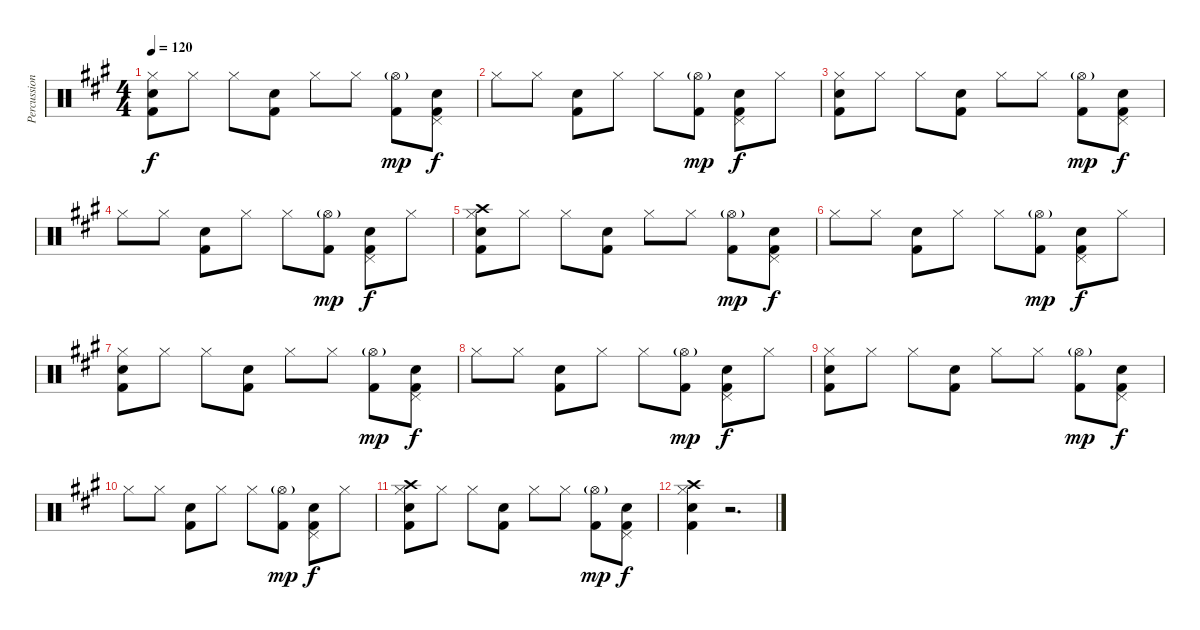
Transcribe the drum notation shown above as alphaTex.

\track ("Percussion" "Percussion") {instrument percussion}
\staff {score}
\articulation defaults
\ts (4 4)
\tempo 120
\clef neutral
\ks a
("Hi-Hat (closed)" "Snare (hit) 2" "Kick (hit) 2").8{dy f} "Hi-Hat (closed)".8 "Hi-Hat (closed)".8 ("Snare (hit) 2" "Kick (hit) 2").8 "Hi-Hat (closed)".8 "Hi-Hat (closed)".8 ("Hi-Hat (open)"{g} "Kick (hit) 2").8{dy mp} ("Pedal Hi-Hat (hit)" "Snare (hit) 2" "Kick (hit) 2").8{dy f} |
"Hi-Hat (closed)".8 "Hi-Hat (closed)".8 ("Snare (hit) 2" "Kick (hit) 2").8 "Hi-Hat (closed)".8 "Hi-Hat (closed)".8 ("Hi-Hat (open)"{g} "Kick (hit) 2").8{dy mp} ("Pedal Hi-Hat (hit)" "Snare (hit) 2" "Kick (hit) 2").8{dy f} "Hi-Hat (closed)".8 |
("Hi-Hat (closed)" "Snare (hit) 2" "Kick (hit) 2").8 "Hi-Hat (closed)".8 "Hi-Hat (closed)".8 ("Snare (hit) 2" "Kick (hit) 2").8 "Hi-Hat (closed)".8 "Hi-Hat (closed)".8 ("Hi-Hat (open)"{g} "Kick (hit) 2").8{dy mp} ("Pedal Hi-Hat (hit)" "Snare (hit) 2" "Kick (hit) 2").8{dy f} |
"Hi-Hat (closed)".8 "Hi-Hat (closed)".8 ("Snare (hit) 2" "Kick (hit) 2").8 "Hi-Hat (closed)".8 "Hi-Hat (closed)".8 ("Hi-Hat (open)"{g} "Kick (hit) 2").8{dy mp} ("Pedal Hi-Hat (hit)" "Snare (hit) 2" "Kick (hit) 2").8{dy f} "Hi-Hat (closed)".8 |
("Crash high (hit)" "Hi-Hat (closed)" "Snare (hit) 2" "Kick (hit) 2").8 "Hi-Hat (closed)".8 "Hi-Hat (closed)".8 ("Snare (hit) 2" "Kick (hit) 2").8 "Hi-Hat (closed)".8 "Hi-Hat (closed)".8 ("Hi-Hat (open)"{g} "Kick (hit) 2").8{dy mp} ("Pedal Hi-Hat (hit)" "Snare (hit) 2" "Kick (hit) 2").8{dy f} |
"Hi-Hat (closed)".8 "Hi-Hat (closed)".8 ("Snare (hit) 2" "Kick (hit) 2").8 "Hi-Hat (closed)".8 "Hi-Hat (closed)".8 ("Hi-Hat (open)"{g} "Kick (hit) 2").8{dy mp} ("Pedal Hi-Hat (hit)" "Snare (hit) 2" "Kick (hit) 2").8{dy f} "Hi-Hat (closed)".8 |
("Hi-Hat (closed)" "Snare (hit) 2" "Kick (hit) 2").8 "Hi-Hat (closed)".8 "Hi-Hat (closed)".8 ("Snare (hit) 2" "Kick (hit) 2").8 "Hi-Hat (closed)".8 "Hi-Hat (closed)".8 ("Hi-Hat (open)"{g} "Kick (hit) 2").8{dy mp} ("Pedal Hi-Hat (hit)" "Snare (hit) 2" "Kick (hit) 2").8{dy f} |
"Hi-Hat (closed)".8 "Hi-Hat (closed)".8 ("Snare (hit) 2" "Kick (hit) 2").8 "Hi-Hat (closed)".8 "Hi-Hat (closed)".8 ("Hi-Hat (open)"{g} "Kick (hit) 2").8{dy mp} ("Pedal Hi-Hat (hit)" "Snare (hit) 2" "Kick (hit) 2").8{dy f} "Hi-Hat (closed)".8 |
("Hi-Hat (closed)" "Snare (hit) 2" "Kick (hit) 2").8 "Hi-Hat (closed)".8 "Hi-Hat (closed)".8 ("Snare (hit) 2" "Kick (hit) 2").8 "Hi-Hat (closed)".8 "Hi-Hat (closed)".8 ("Hi-Hat (open)"{g} "Kick (hit) 2").8{dy mp} ("Pedal Hi-Hat (hit)" "Snare (hit) 2" "Kick (hit) 2").8{dy f} |
"Hi-Hat (closed)".8 "Hi-Hat (closed)".8 ("Snare (hit) 2" "Kick (hit) 2").8 "Hi-Hat (closed)".8 "Hi-Hat (closed)".8 ("Hi-Hat (open)"{g} "Kick (hit) 2").8{dy mp} ("Pedal Hi-Hat (hit)" "Snare (hit) 2" "Kick (hit) 2").8{dy f} "Hi-Hat (closed)".8 |
("Crash high (hit)" "Hi-Hat (closed)" "Snare (hit) 2" "Kick (hit) 2").8 "Hi-Hat (closed)".8 "Hi-Hat (closed)".8 ("Snare (hit) 2" "Kick (hit) 2").8 "Hi-Hat (closed)".8 "Hi-Hat (closed)".8 ("Hi-Hat (open)"{g} "Kick (hit) 2").8{dy mp} ("Pedal Hi-Hat (hit)" "Snare (hit) 2" "Kick (hit) 2").8{dy f} |
("Crash high (hit)" "Hi-Hat (closed)" "Snare (hit) 2" "Kick (hit) 2").4 r.2{d}
